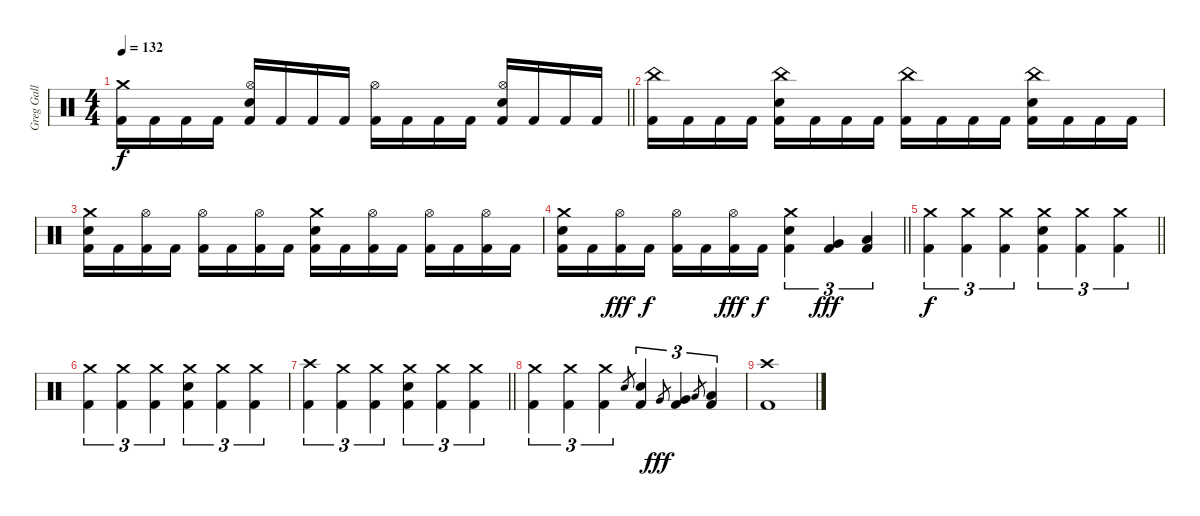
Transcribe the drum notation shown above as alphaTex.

\track ("Greg Gall" "Greg Gall") {instrument percussion}
\staff {score}
\articulation defaults
\ts (4 4)
\tempo 132
\clef neutral
\barLineRight lightlight
\ks c
("Crash medium (hit)" "Kick (hit) 2").16{dy f} "Kick (hit) 2".16 "Kick (hit) 2".16 "Kick (hit) 2".16 ("Hi-Hat (open)" "Electric Snare (hit)" "Kick (hit) 2").16 "Kick (hit) 2".16 "Kick (hit) 2".16 "Kick (hit) 2".16 ("Hi-Hat (open)" "Kick (hit) 2").16 "Kick (hit) 2".16 "Kick (hit) 2".16 "Kick (hit) 2".16 ("Hi-Hat (open)" "Electric Snare (hit)" "Kick (hit) 2").16 "Kick (hit) 2".16 "Kick (hit) 2".16 "Kick (hit) 2".16 |
("China (hit)" "Kick (hit) 2").16 "Kick (hit) 2".16 "Kick (hit) 2".16 "Kick (hit) 2".16 ("China (hit)" "Electric Snare (hit)" "Kick (hit) 2").16 "Kick (hit) 2".16 "Kick (hit) 2".16 "Kick (hit) 2".16 ("China (hit)" "Kick (hit) 2").16 "Kick (hit) 2".16 "Kick (hit) 2".16 "Kick (hit) 2".16 ("China (hit)" "Electric Snare (hit)" "Kick (hit) 2").16 "Kick (hit) 2".16 "Kick (hit) 2".16 "Kick (hit) 2".16 |
("Crash medium (hit)" "Electric Snare (hit)" "Kick (hit) 2").16 "Kick (hit) 2".16 ("Hi-Hat (open)" "Kick (hit) 2").16 "Kick (hit) 2".16 ("Hi-Hat (open)" "Kick (hit) 2").16 "Kick (hit) 2".16 ("Hi-Hat (open)" "Kick (hit) 2").16 "Kick (hit) 2".16 ("Crash medium (hit)" "Electric Snare (hit)" "Kick (hit) 2").16 "Kick (hit) 2".16 ("Hi-Hat (open)" "Kick (hit) 2").16 "Kick (hit) 2".16 ("Hi-Hat (open)" "Kick (hit) 2").16 "Kick (hit) 2".16 ("Hi-Hat (open)" "Kick (hit) 2").16 "Kick (hit) 2".16 |
\barLineRight lightlight
("Crash medium (hit)" "Electric Snare (hit)" "Kick (hit) 2").16 "Kick (hit) 2".16 ("Hi-Hat (open)" "Kick (hit) 2").16{dy fff} "Kick (hit) 2".16{dy f} ("Hi-Hat (open)" "Kick (hit) 2").16 "Kick (hit) 2".16 ("Hi-Hat (open)" "Kick (hit) 2").16{dy fff} "Kick (hit) 2".16{dy f} ("Crash medium (hit)" "Electric Snare (hit)" "Kick (hit) 2").4{tu (3 2)} ("Very Low Tom (hit)" "Kick (hit) 2").4{tu (3 2) dy fff} ("Low Floor Tom (hit)" "Kick (hit) 2").4{tu (3 2)} |
\barLineRight lightlight
("Crash medium (hit)" "Kick (hit) 2").4{tu (3 2) dy f} ("Crash medium (hit)" "Kick (hit) 2").4{tu (3 2)} ("Crash medium (hit)" "Kick (hit) 2").4{tu (3 2)} ("Crash medium (hit)" "Electric Snare (hit)" "Kick (hit) 2").4{tu (3 2)} ("Crash medium (hit)" "Kick (hit) 2").4{tu (3 2)} ("Crash medium (hit)" "Kick (hit) 2").4{tu (3 2)} |
("Crash medium (hit)" "Kick (hit) 2").4{tu (3 2)} ("Crash medium (hit)" "Kick (hit) 2").4{tu (3 2)} ("Crash medium (hit)" "Kick (hit) 2").4{tu (3 2)} ("Crash medium (hit)" "Electric Snare (hit)" "Kick (hit) 2").4{tu (3 2)} ("Crash medium (hit)" "Kick (hit) 2").4{tu (3 2)} ("Crash medium (hit)" "Kick (hit) 2").4{tu (3 2)} |
\barLineRight lightlight
("Crash high (hit)" "Kick (hit) 2").4{tu (3 2)} ("Crash medium (hit)" "Kick (hit) 2").4{tu (3 2)} ("Crash medium (hit)" "Kick (hit) 2").4{tu (3 2)} ("Crash medium (hit)" "Electric Snare (hit)" "Kick (hit) 2").4{tu (3 2)} ("Crash medium (hit)" "Kick (hit) 2").4{tu (3 2)} ("Crash medium (hit)" "Kick (hit) 2").4{tu (3 2)} |
("Crash medium (hit)" "Kick (hit) 2").4{tu (3 2)} ("Crash medium (hit)" "Kick (hit) 2").4{tu (3 2)} ("Crash medium (hit)" "Kick (hit) 2").4{tu (3 2)} "Electric Snare (hit)".8{gr} ("Electric Snare (hit)" "Kick (hit) 2").4{tu (3 2)} "Very Low Tom (hit)".8{gr dy fff} ("Very Low Tom (hit)" "Kick (hit) 2").4{tu (3 2)} "Low Floor Tom (hit)".8{gr} ("Low Floor Tom (hit)" "Kick (hit) 2").4{tu (3 2)} |
("Crash high (hit)" "Kick (hit) 2").1
